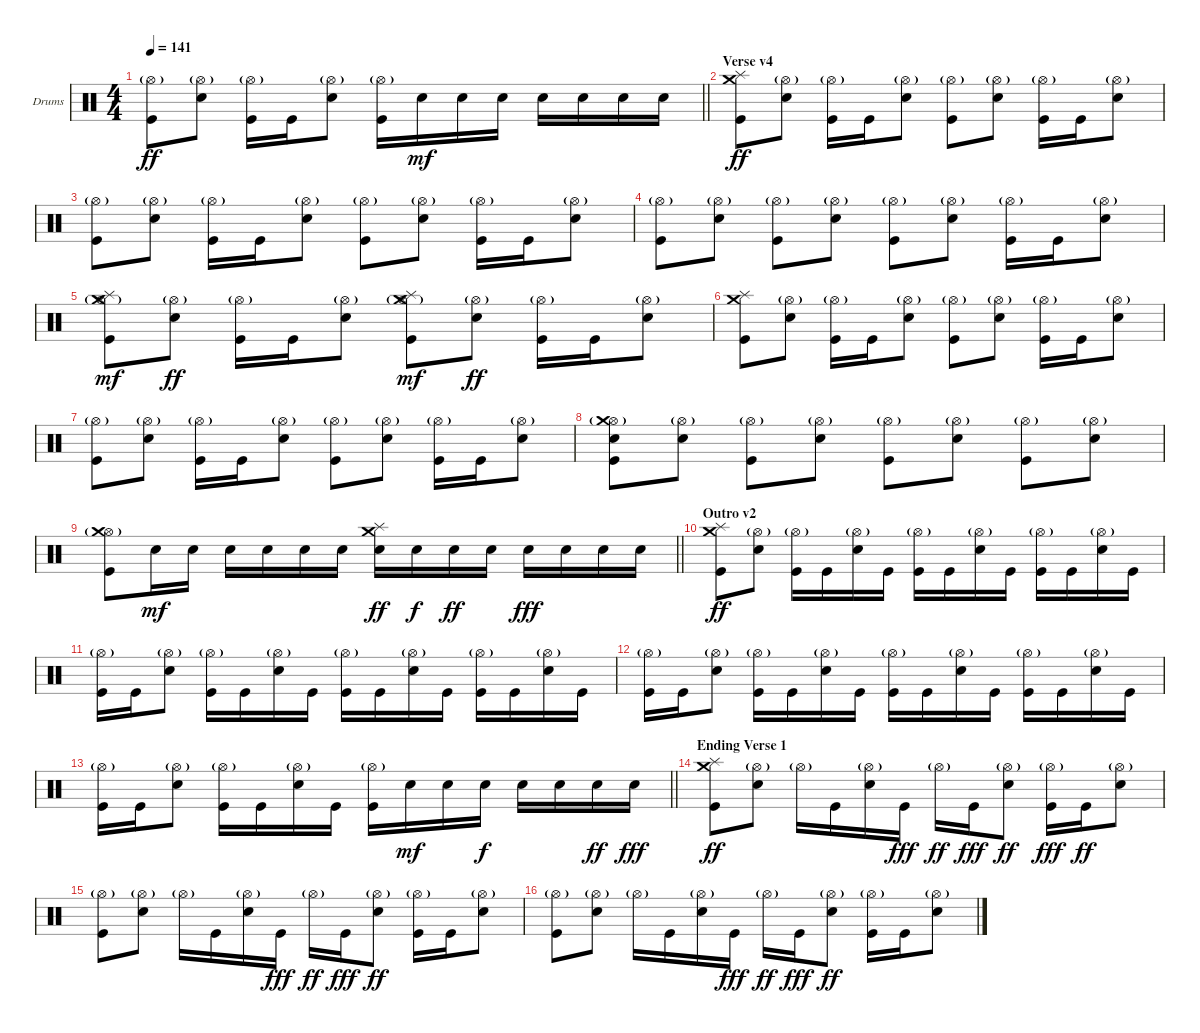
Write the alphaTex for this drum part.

\bracketExtendMode groupsimilarinstruments
\firstSystemTrackNameOrientation horizontal
\otherSystemsTrackNameOrientation horizontal
\track ("Drumkit" "Drums") {solo instrument percussion}
\staff {score}
\articulation defaults
\ts (4 4)
\tempo 141
\clef neutral
\scale
0.333333
\barLineRight lightlight
\ks c
("Hi-Hat (open)"{g} "Kick (hit)").8{dy ff} ("Hi-Hat (open)"{g} "Snare (hit) 2").8 ("Hi-Hat (open)"{g} "Kick (hit)").16 "Kick (hit)".16 ("Hi-Hat (open)"{g} "Snare (hit) 2").8 ("Hi-Hat (open)"{g} "Kick (hit)").16 "Snare (hit) 2".16{dy mf} "Snare (hit) 2".16 "Snare (hit) 2".16 "Snare (hit) 2".16 "Snare (hit) 2".16 "Snare (hit) 2".16 "Snare (hit) 2".16 |
\section ("" "Verse v4")
\scale
0.333333 ("Crash medium (hit)" "Splash (hit)" "Kick (hit)").8{dy ff} ("Hi-Hat (open)"{g} "Snare (hit) 2").8 ("Hi-Hat (open)"{g} "Kick (hit)").16 "Kick (hit)".16 ("Hi-Hat (open)"{g} "Snare (hit) 2").8 ("Hi-Hat (open)"{g} "Kick (hit)").8 ("Hi-Hat (open)"{g} "Snare (hit) 2").8 ("Hi-Hat (open)"{g} "Kick (hit)").16 "Kick (hit)".16 ("Hi-Hat (open)"{g} "Snare (hit) 2").8 |
\scale
0.333333 ("Hi-Hat (open)"{g} "Kick (hit)").8 ("Hi-Hat (open)"{g} "Snare (hit) 2").8 ("Hi-Hat (open)"{g} "Kick (hit)").16 "Kick (hit)".16 ("Hi-Hat (open)"{g} "Snare (hit) 2").8 ("Hi-Hat (open)"{g} "Kick (hit)").8 ("Hi-Hat (open)"{g} "Snare (hit) 2").8 ("Hi-Hat (open)"{g} "Kick (hit)").16 "Kick (hit)".16 ("Hi-Hat (open)"{g} "Snare (hit) 2").8 |
\scale
0.333333 ("Hi-Hat (open)"{g} "Kick (hit)").8 ("Hi-Hat (open)"{g} "Snare (hit) 2").8 ("Hi-Hat (open)"{g} "Kick (hit)").8 ("Hi-Hat (open)"{g} "Snare (hit) 2").8 ("Hi-Hat (open)"{g} "Kick (hit)").8 ("Hi-Hat (open)"{g} "Snare (hit) 2").8 ("Hi-Hat (open)"{g} "Kick (hit)").16 "Kick (hit)".16 ("Hi-Hat (open)"{g} "Snare (hit) 2").8 |
\scale
0.333333 ("Hi-Hat (open)"{g} "Crash medium (hit)" "Splash (hit)" "Kick (hit)").8{dy mf} ("Hi-Hat (open)"{g} "Snare (hit) 2").8{dy ff} ("Hi-Hat (open)"{g} "Kick (hit)").16 "Kick (hit)".16 ("Hi-Hat (open)"{g} "Snare (hit) 2").8 ("Hi-Hat (open)"{g} "Crash medium (hit)" "Splash (hit)" "Kick (hit)").8{dy mf} ("Hi-Hat (open)"{g} "Snare (hit) 2").8{dy ff} ("Hi-Hat (open)"{g} "Kick (hit)").16 "Kick (hit)".16 ("Hi-Hat (open)"{g} "Snare (hit) 2").8 |
\scale
0.333333 ("Crash medium (hit)" "Splash (hit)" "Kick (hit)").8 ("Hi-Hat (open)"{g} "Snare (hit) 2").8 ("Hi-Hat (open)"{g} "Kick (hit)").16 "Kick (hit)".16 ("Hi-Hat (open)"{g} "Snare (hit) 2").8 ("Hi-Hat (open)"{g} "Kick (hit)").8 ("Hi-Hat (open)"{g} "Snare (hit) 2").8 ("Hi-Hat (open)"{g} "Kick (hit)").16 "Kick (hit)".16 ("Hi-Hat (open)"{g} "Snare (hit) 2").8 |
\scale
0.333333 ("Hi-Hat (open)"{g} "Kick (hit)").8 ("Hi-Hat (open)"{g} "Snare (hit) 2").8 ("Hi-Hat (open)"{g} "Kick (hit)").16 "Kick (hit)".16 ("Hi-Hat (open)"{g} "Snare (hit) 2").8 ("Hi-Hat (open)"{g} "Kick (hit)").8 ("Hi-Hat (open)"{g} "Snare (hit) 2").8 ("Hi-Hat (open)"{g} "Kick (hit)").16 "Kick (hit)".16 ("Hi-Hat (open)"{g} "Snare (hit) 2").8 |
\scale
0.333333 ("Hi-Hat (open)"{g} "Crash medium (hit)" "Snare (hit) 2" "Kick (hit)").8 ("Hi-Hat (open)"{g} "Snare (hit) 2").8 ("Hi-Hat (open)"{g} "Kick (hit)").8 ("Hi-Hat (open)"{g} "Snare (hit) 2").8 ("Hi-Hat (open)"{g} "Kick (hit)").8 ("Hi-Hat (open)"{g} "Snare (hit) 2").8 ("Hi-Hat (open)"{g} "Kick (hit)").8 ("Hi-Hat (open)"{g} "Snare (hit) 2").8 |
\scale
0.333333
\barLineRight lightlight
("Hi-Hat (open)"{g} "Crash medium (hit)" "Kick (hit)").8 "Snare (hit) 2".16{dy mf} "Snare (hit) 2".16 "Snare (hit) 2".16 "Snare (hit) 2".16 "Snare (hit) 2".16 "Snare (hit) 2".16 ("Crash medium (hit)" "Snare (hit) 2" "Splash (hit)").16{dy ff} "Snare (hit) 2".16{dy f} "Snare (hit) 2".16{dy ff} "Snare (hit) 2".16 "Snare (hit) 2".16{dy fff} "Snare (hit) 2".16 "Snare (hit) 2".16 "Snare (hit) 2".16 |
\section ("" "Outro v2")
\scale
0.333333 ("Crash medium (hit)" "Splash (hit)" "Kick (hit)").8{dy ff} ("Hi-Hat (open)"{g} "Snare (hit) 2").8 ("Hi-Hat (open)"{g} "Kick (hit)").16 "Kick (hit)".16 ("Hi-Hat (open)"{g} "Snare (hit) 2").16 "Kick (hit)".16 ("Hi-Hat (open)"{g} "Kick (hit)").16 "Kick (hit)".16 ("Hi-Hat (open)"{g} "Snare (hit) 2").16 "Kick (hit)".16 ("Hi-Hat (open)"{g} "Kick (hit)").16 "Kick (hit)".16 ("Hi-Hat (open)"{g} "Snare (hit) 2").16 "Kick (hit)".16 |
\scale
0.333333 ("Hi-Hat (open)"{g} "Kick (hit)").16 "Kick (hit)".16 ("Hi-Hat (open)"{g} "Snare (hit) 2").8 ("Hi-Hat (open)"{g} "Kick (hit)").16 "Kick (hit)".16 ("Hi-Hat (open)"{g} "Snare (hit) 2").16 "Kick (hit)".16 ("Hi-Hat (open)"{g} "Kick (hit)").16 "Kick (hit)".16 ("Hi-Hat (open)"{g} "Snare (hit) 2").16 "Kick (hit)".16 ("Hi-Hat (open)"{g} "Kick (hit)").16 "Kick (hit)".16 ("Hi-Hat (open)"{g} "Snare (hit) 2").16 "Kick (hit)".16 |
\scale
0.333333 ("Hi-Hat (open)"{g} "Kick (hit)").16 "Kick (hit)".16 ("Hi-Hat (open)"{g} "Snare (hit) 2").8 ("Hi-Hat (open)"{g} "Kick (hit)").16 "Kick (hit)".16 ("Hi-Hat (open)"{g} "Snare (hit) 2").16 "Kick (hit)".16 ("Hi-Hat (open)"{g} "Kick (hit)").16 "Kick (hit)".16 ("Hi-Hat (open)"{g} "Snare (hit) 2").16 "Kick (hit)".16 ("Hi-Hat (open)"{g} "Kick (hit)").16 "Kick (hit)".16 ("Hi-Hat (open)"{g} "Snare (hit) 2").16 "Kick (hit)".16 |
\scale
0.333333
\barLineRight lightlight
("Hi-Hat (open)"{g} "Kick (hit)").16 "Kick (hit)".16 ("Hi-Hat (open)"{g} "Snare (hit) 2").8 ("Hi-Hat (open)"{g} "Kick (hit)").16 "Kick (hit)".16 ("Hi-Hat (open)"{g} "Snare (hit) 2").16 "Kick (hit)".16 ("Hi-Hat (open)"{g} "Kick (hit)").16 "Snare (hit) 2".16{dy mf} "Snare (hit) 2".16 "Snare (hit) 2".16{dy f} "Snare (hit) 2".16 "Snare (hit) 2".16 "Snare (hit) 2".16{dy ff} "Snare (hit) 2".16{dy fff} |
\section ("" "Ending Verse 1")
\scale
0.333333 ("Crash medium (hit)" "Splash (hit)" "Kick (hit)").8{dy ff} ("Hi-Hat (open)"{g} "Snare (hit) 2").8 "Hi-Hat (open)"{g}.16 "Kick (hit)".16 ("Hi-Hat (open)"{g} "Snare (hit) 2").16 "Kick (hit)".16{dy fff} "Hi-Hat (open)"{g}.16{dy ff} "Kick (hit)".16{dy fff} ("Hi-Hat (open)"{g} "Snare (hit) 2").8{dy ff} ("Hi-Hat (open)"{g} "Kick (hit)").16{dy fff} "Kick (hit)".16{dy ff} ("Hi-Hat (open)"{g} "Snare (hit) 2").8 |
\scale
0.333333 ("Hi-Hat (open)"{g} "Kick (hit)").8 ("Hi-Hat (open)"{g} "Snare (hit) 2").8 "Hi-Hat (open)"{g}.16 "Kick (hit)".16 ("Hi-Hat (open)"{g} "Snare (hit) 2").16 "Kick (hit)".16{dy fff} "Hi-Hat (open)"{g}.16{dy ff} "Kick (hit)".16{dy fff} ("Hi-Hat (open)"{g} "Snare (hit) 2").8{dy ff} ("Hi-Hat (open)"{g} "Kick (hit)").16 "Kick (hit)".16 ("Hi-Hat (open)"{g} "Snare (hit) 2").8 |
\scale
0.333333 ("Hi-Hat (open)"{g} "Kick (hit)").8 ("Hi-Hat (open)"{g} "Snare (hit) 2").8 "Hi-Hat (open)"{g}.16 "Kick (hit)".16 ("Hi-Hat (open)"{g} "Snare (hit) 2").16 "Kick (hit)".16{dy fff} "Hi-Hat (open)"{g}.16{dy ff} "Kick (hit)".16{dy fff} ("Hi-Hat (open)"{g} "Snare (hit) 2").8{dy ff} ("Hi-Hat (open)"{g} "Kick (hit)").16 "Kick (hit)".16 ("Hi-Hat (open)"{g} "Snare (hit) 2").8
